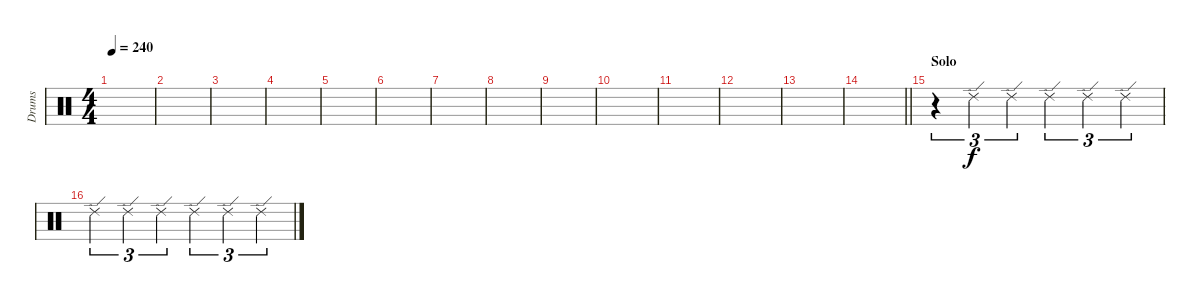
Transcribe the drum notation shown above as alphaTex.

\track ("Drums" "Drums") {instrument percussion}
\staff {score}
\articulation defaults
\ts (4 4)
\tempo 240
\clef neutral
\ks c
|
|
|
|
|
|
|
|
|
|
|
|
|
\barLineRight lightlight
|
\section ("" "Solo")
r.4{tu (3 2)} "Ride (edge) 2".4{tu (3 2)} "Ride (edge) 2".4{tu (3 2)} "Ride (edge) 2".4{tu (3 2)} "Ride (edge) 2".4{tu (3 2)} "Ride (edge) 2".4{tu (3 2)} |
"Ride (edge) 2".4{tu (3 2)} "Ride (edge) 2".4{tu (3 2)} "Ride (edge) 2".4{tu (3 2)} "Ride (edge) 2".4{tu (3 2)} "Ride (edge) 2".4{tu (3 2)} "Ride (edge) 2".4{tu (3 2)}
